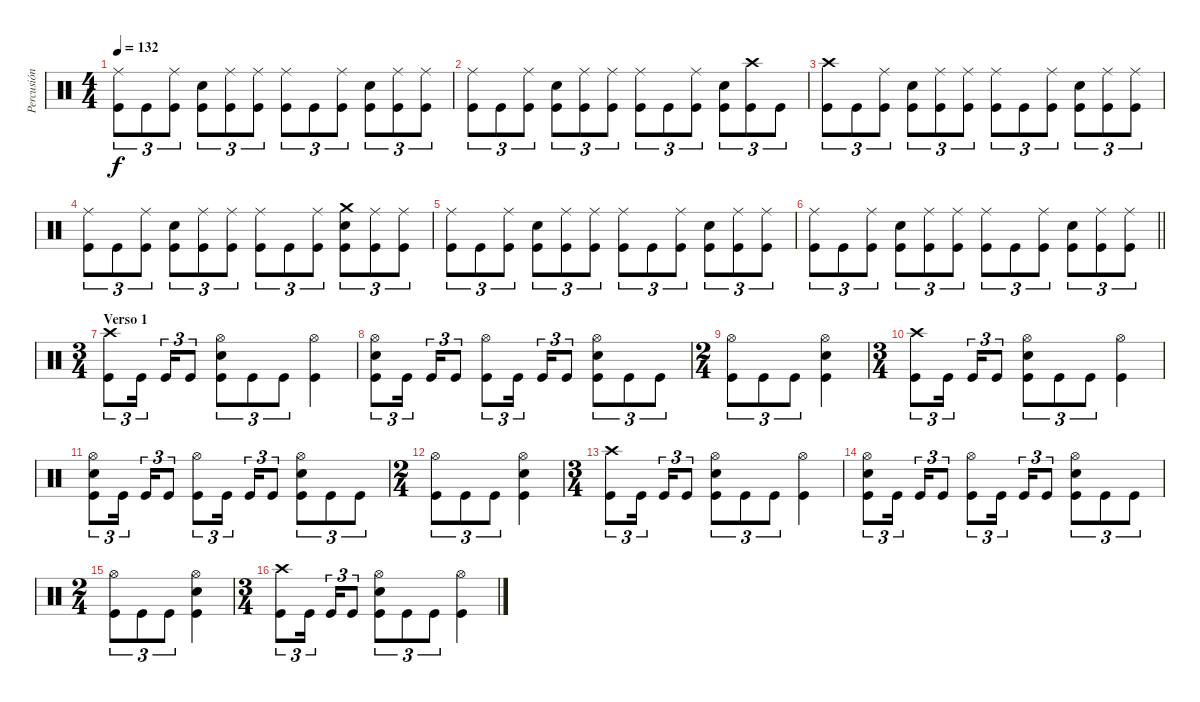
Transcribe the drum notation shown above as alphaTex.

\track ("Percusión" "Percusión") {instrument percussion}
\staff
\articulation defaults
\ts (4 4)
\tempo 132
\clef neutral
\ks c
("Kick (hit)" "Ride (middle)").8{tu (3 2) dy f} "Kick (hit)".8{tu (3 2)} ("Kick (hit)" "Ride (middle)").8{tu (3 2)} ("Kick (hit)" "Electric Snare (hit)").8{tu (3 2)} ("Kick (hit)" "Ride (middle)").8{tu (3 2)} ("Kick (hit)" "Ride (middle)").8{tu (3 2)} ("Kick (hit)" "Ride (middle)").8{tu (3 2)} "Kick (hit)".8{tu (3 2)} ("Kick (hit)" "Ride (middle)").8{tu (3 2)} ("Kick (hit)" "Electric Snare (hit)").8{tu (3 2)} ("Kick (hit)" "Ride (middle)").8{tu (3 2)} ("Kick (hit)" "Ride (middle)").8{tu (3 2)} |
("Kick (hit)" "Ride (middle)").8{tu (3 2)} "Kick (hit)".8{tu (3 2)} ("Kick (hit)" "Ride (middle)").8{tu (3 2)} ("Kick (hit)" "Electric Snare (hit)").8{tu (3 2)} ("Kick (hit)" "Ride (middle)").8{tu (3 2)} ("Kick (hit)" "Ride (middle)").8{tu (3 2)} ("Kick (hit)" "Ride (middle)").8{tu (3 2)} "Kick (hit)".8{tu (3 2)} ("Kick (hit)" "Ride (middle)").8{tu (3 2)} ("Kick (hit)" "Electric Snare (hit)").8{tu (3 2)} ("Kick (hit)" "Crash high (hit)").8{tu (3 2)} "Kick (hit)".8{tu (3 2)} |
("Kick (hit)" "Crash high (hit)").8{tu (3 2)} "Kick (hit)".8{tu (3 2)} ("Kick (hit)" "Ride (middle)").8{tu (3 2)} ("Kick (hit)" "Electric Snare (hit)").8{tu (3 2)} ("Kick (hit)" "Ride (middle)").8{tu (3 2)} ("Kick (hit)" "Ride (middle)").8{tu (3 2)} ("Kick (hit)" "Ride (middle)").8{tu (3 2)} "Kick (hit)".8{tu (3 2)} ("Kick (hit)" "Ride (middle)").8{tu (3 2)} ("Kick (hit)" "Electric Snare (hit)").8{tu (3 2)} ("Kick (hit)" "Ride (middle)").8{tu (3 2)} ("Kick (hit)" "Ride (middle)").8{tu (3 2)} |
("Kick (hit)" "Ride (middle)").8{tu (3 2)} "Kick (hit)".8{tu (3 2)} ("Kick (hit)" "Ride (middle)").8{tu (3 2)} ("Kick (hit)" "Electric Snare (hit)").8{tu (3 2)} ("Kick (hit)" "Ride (middle)").8{tu (3 2)} ("Kick (hit)" "Ride (middle)").8{tu (3 2)} ("Kick (hit)" "Ride (middle)").8{tu (3 2)} "Kick (hit)".8{tu (3 2)} ("Kick (hit)" "Ride (middle)").8{tu (3 2)} ("Kick (hit)" "Electric Snare (hit)" "Crash medium (hit)").8{tu (3 2)} ("Kick (hit)" "Ride (middle)").8{tu (3 2)} ("Kick (hit)" "Ride (middle)").8{tu (3 2)} |
("Kick (hit)" "Ride (middle)").8{tu (3 2)} "Kick (hit)".8{tu (3 2)} ("Kick (hit)" "Ride (middle)").8{tu (3 2)} ("Kick (hit)" "Electric Snare (hit)").8{tu (3 2)} ("Kick (hit)" "Ride (middle)").8{tu (3 2)} ("Kick (hit)" "Ride (middle)").8{tu (3 2)} ("Kick (hit)" "Ride (middle)").8{tu (3 2)} "Kick (hit)".8{tu (3 2)} ("Kick (hit)" "Ride (middle)").8{tu (3 2)} ("Kick (hit)" "Electric Snare (hit)").8{tu (3 2)} ("Kick (hit)" "Ride (middle)").8{tu (3 2)} ("Kick (hit)" "Ride (middle)").8{tu (3 2)} |
\barLineRight lightlight
("Kick (hit)" "Ride (middle)").8{tu (3 2)} "Kick (hit)".8{tu (3 2)} ("Kick (hit)" "Ride (middle)").8{tu (3 2)} ("Kick (hit)" "Electric Snare (hit)").8{tu (3 2)} ("Kick (hit)" "Ride (middle)").8{tu (3 2)} ("Kick (hit)" "Ride (middle)").8{tu (3 2)} ("Kick (hit)" "Ride (middle)").8{tu (3 2)} "Kick (hit)".8{tu (3 2)} ("Kick (hit)" "Ride (middle)").8{tu (3 2)} ("Kick (hit)" "Electric Snare (hit)").8{tu (3 2)} ("Kick (hit)" "Ride (middle)").8{tu (3 2)} ("Kick (hit)" "Ride (middle)").8{tu (3 2)} |
\ts (3 4)
\section ("" "Verso 1")
("Kick (hit)" "Crash high (hit)").8{tu (3 2)} "Kick (hit)".16{tu (3 2) beam splitsecondary} "Kick (hit)".16{tu (3 2)} "Kick (hit)".8{tu (3 2)} ("Kick (hit)" "Hi-Hat (open)" "Electric Snare (hit)").8{tu (3 2)} "Kick (hit)".8{tu (3 2)} "Kick (hit)".8{tu (3 2)} ("Kick (hit)" "Hi-Hat (open)").4 |
("Kick (hit)" "Hi-Hat (open)" "Electric Snare (hit)").8{tu (3 2)} "Kick (hit)".16{tu (3 2) beam splitsecondary} "Kick (hit)".16{tu (3 2)} "Kick (hit)".8{tu (3 2)} ("Kick (hit)" "Hi-Hat (open)").8{tu (3 2)} "Kick (hit)".16{tu (3 2) beam splitsecondary} "Kick (hit)".16{tu (3 2)} "Kick (hit)".8{tu (3 2)} ("Kick (hit)" "Hi-Hat (open)" "Electric Snare (hit)").8{tu (3 2)} "Kick (hit)".8{tu (3 2)} "Kick (hit)".8{tu (3 2)} |
\ts (2 4)
("Kick (hit)" "Hi-Hat (open)").8{tu (3 2)} "Kick (hit)".8{tu (3 2)} "Kick (hit)".8{tu (3 2)} ("Kick (hit)" "Hi-Hat (open)" "Electric Snare (hit)").4 |
\ts (3 4)
("Kick (hit)" "Crash high (hit)").8{tu (3 2)} "Kick (hit)".16{tu (3 2) beam splitsecondary} "Kick (hit)".16{tu (3 2)} "Kick (hit)".8{tu (3 2)} ("Kick (hit)" "Hi-Hat (open)" "Electric Snare (hit)").8{tu (3 2)} "Kick (hit)".8{tu (3 2)} "Kick (hit)".8{tu (3 2)} ("Kick (hit)" "Hi-Hat (open)").4 |
("Kick (hit)" "Hi-Hat (open)" "Electric Snare (hit)").8{tu (3 2)} "Kick (hit)".16{tu (3 2) beam splitsecondary} "Kick (hit)".16{tu (3 2)} "Kick (hit)".8{tu (3 2)} ("Kick (hit)" "Hi-Hat (open)").8{tu (3 2)} "Kick (hit)".16{tu (3 2) beam splitsecondary} "Kick (hit)".16{tu (3 2)} "Kick (hit)".8{tu (3 2)} ("Kick (hit)" "Hi-Hat (open)" "Electric Snare (hit)").8{tu (3 2)} "Kick (hit)".8{tu (3 2)} "Kick (hit)".8{tu (3 2)} |
\ts (2 4)
("Kick (hit)" "Hi-Hat (open)").8{tu (3 2)} "Kick (hit)".8{tu (3 2)} "Kick (hit)".8{tu (3 2)} ("Kick (hit)" "Hi-Hat (open)" "Electric Snare (hit)").4 |
\ts (3 4)
("Kick (hit)" "Crash high (hit)").8{tu (3 2)} "Kick (hit)".16{tu (3 2) beam splitsecondary} "Kick (hit)".16{tu (3 2)} "Kick (hit)".8{tu (3 2)} ("Kick (hit)" "Hi-Hat (open)" "Electric Snare (hit)").8{tu (3 2)} "Kick (hit)".8{tu (3 2)} "Kick (hit)".8{tu (3 2)} ("Kick (hit)" "Hi-Hat (open)").4 |
("Kick (hit)" "Hi-Hat (open)" "Electric Snare (hit)").8{tu (3 2)} "Kick (hit)".16{tu (3 2) beam splitsecondary} "Kick (hit)".16{tu (3 2)} "Kick (hit)".8{tu (3 2)} ("Kick (hit)" "Hi-Hat (open)").8{tu (3 2)} "Kick (hit)".16{tu (3 2) beam splitsecondary} "Kick (hit)".16{tu (3 2)} "Kick (hit)".8{tu (3 2)} ("Kick (hit)" "Hi-Hat (open)" "Electric Snare (hit)").8{tu (3 2)} "Kick (hit)".8{tu (3 2)} "Kick (hit)".8{tu (3 2)} |
\ts (2 4)
("Kick (hit)" "Hi-Hat (open)").8{tu (3 2)} "Kick (hit)".8{tu (3 2)} "Kick (hit)".8{tu (3 2)} ("Kick (hit)" "Hi-Hat (open)" "Electric Snare (hit)").4 |
\ts (3 4)
("Kick (hit)" "Crash high (hit)").8{tu (3 2)} "Kick (hit)".16{tu (3 2) beam splitsecondary} "Kick (hit)".16{tu (3 2)} "Kick (hit)".8{tu (3 2)} ("Kick (hit)" "Hi-Hat (open)" "Electric Snare (hit)").8{tu (3 2)} "Kick (hit)".8{tu (3 2)} "Kick (hit)".8{tu (3 2)} ("Kick (hit)" "Hi-Hat (open)").4
